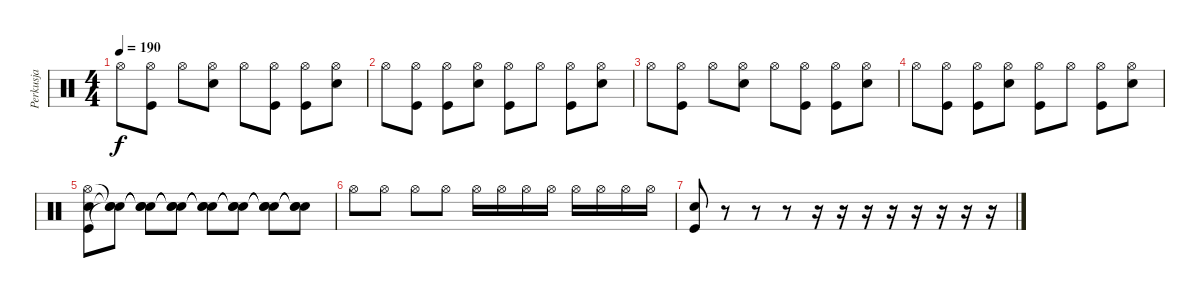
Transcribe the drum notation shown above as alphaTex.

\track ("Perkusja" "Perkusja") {instrument percussion}
\staff {score}
\articulation defaults
\ts (4 4)
\tempo 190
\clef neutral
\ks c "Hi-Hat (open)".8{dy f}
("Hi-Hat (open)" "Kick (hit)").8 "Hi-Hat (open)".8 ("Hi-Hat (open)" "Electric Snare (hit)").8 "Hi-Hat (open)".8 ("Hi-Hat (open)" "Kick (hit)").8 ("Hi-Hat (open)" "Kick (hit)").8 ("Hi-Hat (open)" "Electric Snare (hit)").8 |
"Hi-Hat (open)".8 ("Hi-Hat (open)" "Kick (hit)").8 ("Hi-Hat (open)" "Kick (hit)").8 ("Hi-Hat (open)" "Electric Snare (hit)").8 ("Hi-Hat (open)" "Kick (hit)").8 "Hi-Hat (open)".8 ("Hi-Hat (open)" "Kick (hit)").8 ("Hi-Hat (open)" "Electric Snare (hit)").8 |
"Hi-Hat (open)".8 ("Hi-Hat (open)" "Kick (hit)").8 "Hi-Hat (open)".8 ("Hi-Hat (open)" "Electric Snare (hit)").8 "Hi-Hat (open)".8 ("Hi-Hat (open)" "Kick (hit)").8 ("Hi-Hat (open)" "Kick (hit)").8 ("Hi-Hat (open)" "Electric Snare (hit)").8 |
"Hi-Hat (open)".8 ("Hi-Hat (open)" "Kick (hit)").8 ("Hi-Hat (open)" "Kick (hit)").8 ("Hi-Hat (open)" "Electric Snare (hit)").8 ("Hi-Hat (open)" "Kick (hit)").8 "Hi-Hat (open)".8 ("Hi-Hat (open)" "Kick (hit)").8 ("Hi-Hat (open)" "Electric Snare (hit)").8 |
("Kick (hit)" "Electric Snare (hit)" "Hi-Hat (open)").8 ("Snare (hit)"{t} "Snare (hit)"{t} "Snare (hit)"{t}).8 ("Snare (hit)"{t} "Snare (hit)"{t} "Snare (hit)"{t}).8 ("Snare (hit)"{t} "Snare (hit)"{t} "Snare (hit)"{t}).8 ("Snare (hit)"{t} "Snare (hit)"{t} "Snare (hit)"{t}).8 ("Snare (hit)"{t} "Snare (hit)"{t} "Snare (hit)"{t}).8 ("Snare (hit)"{t} "Snare (hit)"{t} "Snare (hit)"{t}).8 ("Snare (hit)"{t} "Snare (hit)"{t} "Snare (hit)"{t}).8 |
"Hi-Hat (open)".8 "Hi-Hat (open)".8 "Hi-Hat (open)".8 "Hi-Hat (open)".8 "Hi-Hat (open)".16 "Hi-Hat (open)".16 "Hi-Hat (open)".16 "Hi-Hat (open)".16 "Hi-Hat (open)".16 "Hi-Hat (open)".16 "Hi-Hat (open)".16 "Hi-Hat (open)".16 |
("Kick (hit)" "Electric Snare (hit)").8 r.8 r.8 r.8 r.16 r.16 r.16 r.16 r.16 r.16 r.16 r.16
